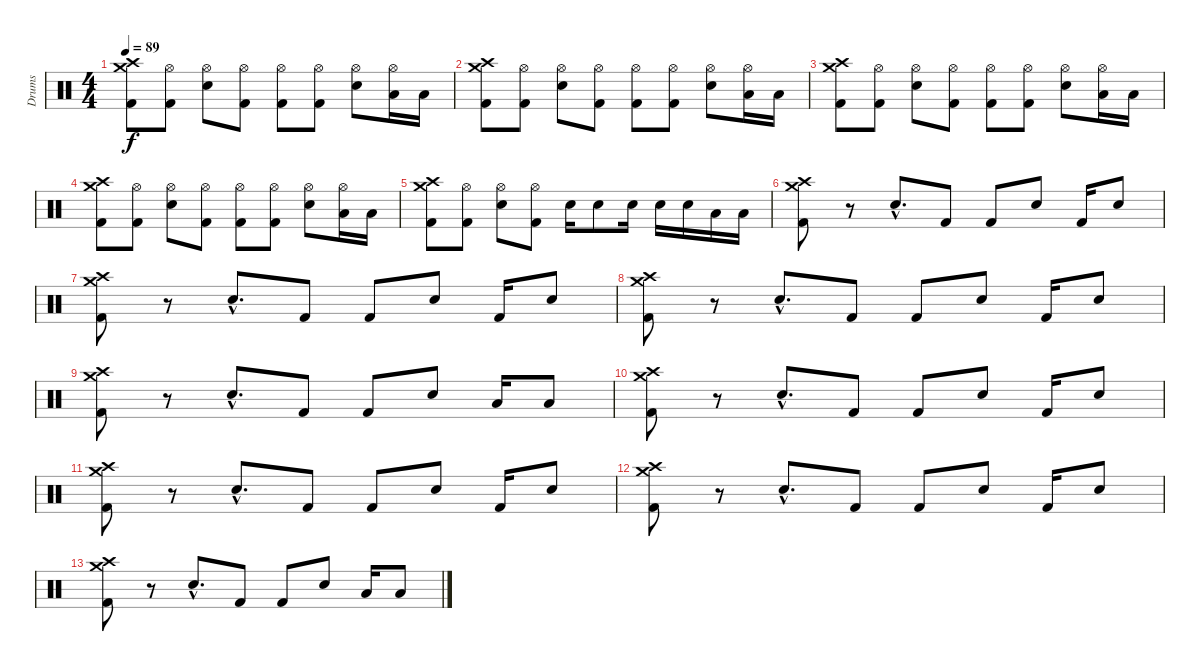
\track ("Drums" "Drums") {instrument percussion}
\staff {score}
\articulation defaults
\ts (4 4)
\tempo 89
\clef neutral
\ks c
("Crash high (hit)" "Crash medium (hit)" "Kick (hit) 2").8{dy f} ("Hi-Hat (open)" "Kick (hit) 2").8 ("Hi-Hat (open)" "Snare (hit) 2").8 ("Hi-Hat (open)" "Kick (hit) 2").8 ("Hi-Hat (open)" "Kick (hit) 2").8 ("Hi-Hat (open)" "Kick (hit) 2").8 ("Hi-Hat (open)" "Snare (hit) 2").8 ("Hi-Hat (open)" "Low Tom (hit)").16 "Low Tom (hit)".16 |
("Crash high (hit)" "Crash medium (hit)" "Kick (hit) 2").8 ("Hi-Hat (open)" "Kick (hit) 2").8 ("Hi-Hat (open)" "Snare (hit) 2").8 ("Hi-Hat (open)" "Kick (hit) 2").8 ("Hi-Hat (open)" "Kick (hit) 2").8 ("Hi-Hat (open)" "Kick (hit) 2").8 ("Hi-Hat (open)" "Snare (hit) 2").8 ("Hi-Hat (open)" "Low Tom (hit)").16 "Low Tom (hit)".16 |
("Crash high (hit)" "Crash medium (hit)" "Kick (hit) 2").8 ("Hi-Hat (open)" "Kick (hit) 2").8 ("Hi-Hat (open)" "Snare (hit) 2").8 ("Hi-Hat (open)" "Kick (hit) 2").8 ("Hi-Hat (open)" "Kick (hit) 2").8 ("Hi-Hat (open)" "Kick (hit) 2").8 ("Hi-Hat (open)" "Snare (hit) 2").8 ("Hi-Hat (open)" "Low Tom (hit)").16 "Low Tom (hit)".16 |
("Crash high (hit)" "Crash medium (hit)" "Kick (hit) 2").8 ("Hi-Hat (open)" "Kick (hit) 2").8 ("Hi-Hat (open)" "Snare (hit) 2").8 ("Hi-Hat (open)" "Kick (hit) 2").8 ("Hi-Hat (open)" "Kick (hit) 2").8 ("Hi-Hat (open)" "Kick (hit) 2").8 ("Hi-Hat (open)" "Snare (hit) 2").8 ("Hi-Hat (open)" "Low Tom (hit)").16 "Low Tom (hit)".16 |
("Crash high (hit)" "Crash medium (hit)" "Kick (hit) 2").8 ("Hi-Hat (open)" "Kick (hit) 2").8 ("Hi-Hat (open)" "Snare (hit) 2").8 ("Hi-Hat (open)" "Kick (hit) 2").8 "Snare (hit) 2".16 "Snare (hit) 2".8 "Snare (hit) 2".16 "Snare (hit) 2".16 "Snare (hit) 2".16 "Low Tom (hit)".16 "Low Tom (hit)".16 |
("Crash high (hit)" "Crash medium (hit)" "Kick (hit) 2").8 r.8 "Snare (hit) 2"{hac}.8{d} "Kick (hit) 2".8 "Kick (hit) 2".8 "Snare (hit) 2".8 "Kick (hit) 2".16 "Snare (hit) 2".8 |
("Crash high (hit)" "Crash medium (hit)" "Kick (hit) 2").8 r.8 "Snare (hit) 2"{hac}.8{d} "Kick (hit) 2".8 "Kick (hit) 2".8 "Snare (hit) 2".8 "Kick (hit) 2".16 "Snare (hit) 2".8 |
("Crash high (hit)" "Crash medium (hit)" "Kick (hit) 2").8 r.8 "Snare (hit) 2"{hac}.8{d} "Kick (hit) 2".8 "Kick (hit) 2".8 "Snare (hit) 2".8 "Kick (hit) 2".16 "Snare (hit) 2".8 |
("Crash high (hit)" "Crash medium (hit)" "Kick (hit) 2").8 r.8 "Snare (hit) 2"{hac}.8{d} "Kick (hit) 2".8 "Kick (hit) 2".8 "Snare (hit) 2".8 "Low Tom (hit)".16 "Low Tom (hit)".8 |
("Crash high (hit)" "Crash medium (hit)" "Kick (hit) 2").8 r.8 "Snare (hit) 2"{hac}.8{d} "Kick (hit) 2".8 "Kick (hit) 2".8 "Snare (hit) 2".8 "Kick (hit) 2".16 "Snare (hit) 2".8 |
("Crash high (hit)" "Crash medium (hit)" "Kick (hit) 2").8 r.8 "Snare (hit) 2"{hac}.8{d} "Kick (hit) 2".8 "Kick (hit) 2".8 "Snare (hit) 2".8 "Kick (hit) 2".16 "Snare (hit) 2".8 |
("Crash high (hit)" "Crash medium (hit)" "Kick (hit) 2").8 r.8 "Snare (hit) 2"{hac}.8{d} "Kick (hit) 2".8 "Kick (hit) 2".8 "Snare (hit) 2".8 "Kick (hit) 2".16 "Snare (hit) 2".8 |
("Crash high (hit)" "Crash medium (hit)" "Kick (hit) 2").8 r.8 "Snare (hit) 2"{hac}.8{d} "Kick (hit) 2".8 "Kick (hit) 2".8 "Snare (hit) 2".8 "Low Tom (hit)".16 "Low Tom (hit)".8
